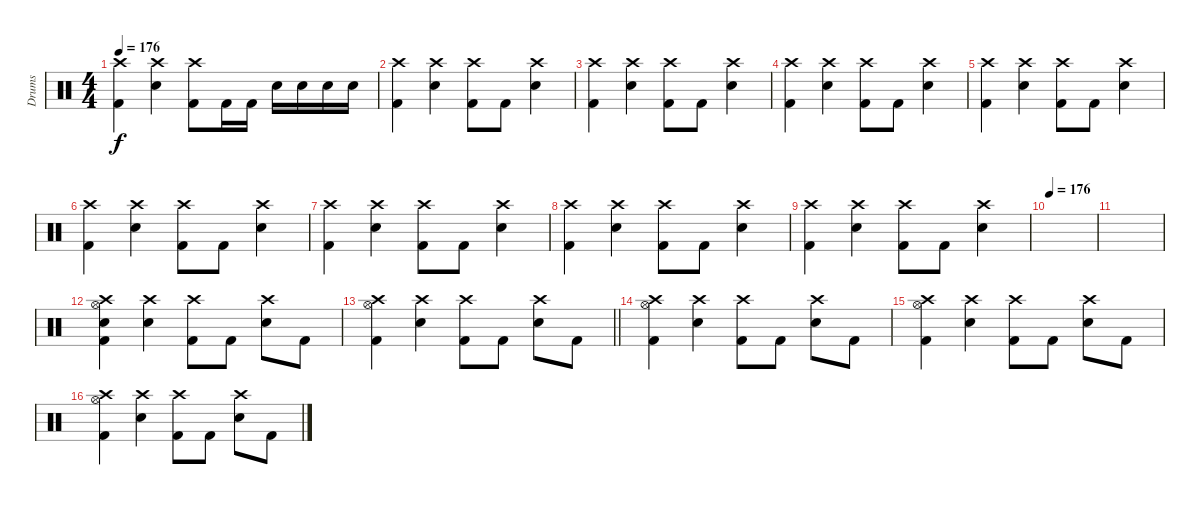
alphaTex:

\track ("Drums" "Drums") {instrument percussion}
\staff {score}
\articulation defaults
\ts (4 4)
\tempo 176
\clef neutral
\ks c
("Crash high (hit)" "Kick (hit) 2").4{dy f} ("Crash high (hit)" "Snare (hit) 2").4 ("Kick (hit) 2" "Crash high (hit)").8 "Kick (hit) 2".16 "Kick (hit) 2".16 "Snare (hit) 2".16 "Snare (hit) 2".16 "Snare (hit) 2".16 "Snare (hit) 2".16 |
("Crash high (hit)" "Kick (hit) 2").4 ("Crash high (hit)" "Snare (hit) 2").4 ("Crash high (hit)" "Kick (hit) 2").8 "Kick (hit) 2".8 ("Crash high (hit)" "Snare (hit) 2").4 |
("Crash high (hit)" "Kick (hit) 2").4 ("Crash high (hit)" "Snare (hit) 2").4 ("Crash high (hit)" "Kick (hit) 2").8 "Kick (hit) 2".8 ("Crash high (hit)" "Snare (hit) 2").4 |
("Crash high (hit)" "Kick (hit) 2").4 ("Crash high (hit)" "Snare (hit) 2").4 ("Crash high (hit)" "Kick (hit) 2").8 "Kick (hit) 2".8 ("Crash high (hit)" "Snare (hit) 2").4 |
("Crash high (hit)" "Kick (hit) 2").4 ("Crash high (hit)" "Snare (hit) 2").4 ("Crash high (hit)" "Kick (hit) 2").8 "Kick (hit) 2".8 ("Crash high (hit)" "Snare (hit) 2").4 |
("Crash high (hit)" "Kick (hit) 2").4 ("Crash high (hit)" "Snare (hit) 2").4 ("Crash high (hit)" "Kick (hit) 2").8 "Kick (hit) 2".8 ("Crash high (hit)" "Snare (hit) 2").4 |
("Crash high (hit)" "Kick (hit) 2").4 ("Crash high (hit)" "Snare (hit) 2").4 ("Crash high (hit)" "Kick (hit) 2").8 "Kick (hit) 2".8 ("Crash high (hit)" "Snare (hit) 2").4 |
("Crash high (hit)" "Kick (hit) 2").4 ("Crash high (hit)" "Snare (hit) 2").4 ("Crash high (hit)" "Kick (hit) 2").8 "Kick (hit) 2".8 ("Crash high (hit)" "Snare (hit) 2").4 |
("Crash high (hit)" "Kick (hit) 2").4 ("Crash high (hit)" "Snare (hit) 2").4 ("Crash high (hit)" "Kick (hit) 2").8 "Kick (hit) 2".8 ("Crash high (hit)" "Snare (hit) 2").4 |
\tempo 176
|
|
("Snare (hit) 2" "Kick (hit) 2" "Hi-Hat (open)" "Crash high (hit)").4 ("Snare (hit) 2" "Crash high (hit)").4 ("Kick (hit) 2" "Crash high (hit)").8 "Kick (hit) 2".8 ("Snare (hit) 2" "Crash high (hit)").8 "Kick (hit) 2".8 |
\barLineRight lightlight
("Kick (hit) 2" "Hi-Hat (open)" "Crash high (hit)").4 ("Snare (hit) 2" "Crash high (hit)").4 ("Kick (hit) 2" "Crash high (hit)").8 "Kick (hit) 2".8 ("Snare (hit) 2" "Crash high (hit)").8 "Kick (hit) 2".8 |
("Kick (hit) 2" "Hi-Hat (open)" "Crash high (hit)").4 ("Snare (hit) 2" "Crash high (hit)").4 ("Kick (hit) 2" "Crash high (hit)").8 "Kick (hit) 2".8 ("Snare (hit) 2" "Crash high (hit)").8 "Kick (hit) 2".8 |
("Kick (hit) 2" "Hi-Hat (open)" "Crash high (hit)").4 ("Snare (hit) 2" "Crash high (hit)").4 ("Kick (hit) 2" "Crash high (hit)").8 "Kick (hit) 2".8 ("Snare (hit) 2" "Crash high (hit)").8 "Kick (hit) 2".8 |
("Kick (hit) 2" "Hi-Hat (open)" "Crash high (hit)").4 ("Snare (hit) 2" "Crash high (hit)").4 ("Kick (hit) 2" "Crash high (hit)").8 "Kick (hit) 2".8 ("Snare (hit) 2" "Crash high (hit)").8 "Kick (hit) 2".8
